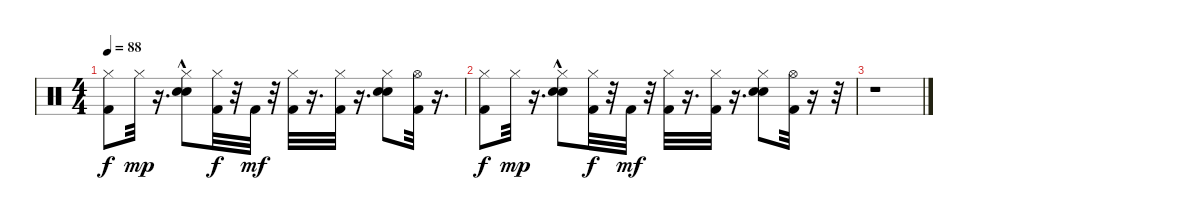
\track "" {instrument percussion}
\staff {score}
\articulation defaults
\ts (4 4)
\tempo 88
\clef neutral
\ks c
("Hi-Hat (closed)" "Kick (hit) 2").8{dy f} "Hi-Hat (closed)".32{dy mp} r.16{d} ("Hi-Hat (closed)" "Hand Clap (hit)" "Electric Snare (hit)"{hac}).8 ("Hi-Hat (closed)" "Kick (hit) 2").32{dy f} r.32 "Kick (hit) 2".32{dy mf} r.32 ("Kick (hit) 2" "Hi-Hat (closed)").32 r.16{d} ("Hi-Hat (closed)" "Kick (hit) 2").32 r.16{d} ("Electric Snare (hit)" "Hi-Hat (closed)" "Hand Clap (hit)").8 ("Hi-Hat (open)" "Kick (hit) 2").32 r.16{d} |
("Hi-Hat (closed)" "Kick (hit) 2").8{dy f} "Hi-Hat (closed)".32{dy mp} r.16{d} ("Hi-Hat (closed)" "Hand Clap (hit)" "Electric Snare (hit)"{hac}).8 ("Kick (hit) 2" "Hi-Hat (closed)").32{dy f} r.32 "Kick (hit) 2".32{dy mf} r.32 ("Kick (hit) 2" "Hi-Hat (closed)").32 r.16{d} ("Kick (hit) 2" "Hi-Hat (closed)").32 r.16{d} ("Electric Snare (hit)" "Hi-Hat (closed)" "Hand Clap (hit)").8 ("Hi-Hat (open)" "Kick (hit) 2").32 r.16 r.32 |
r.1
